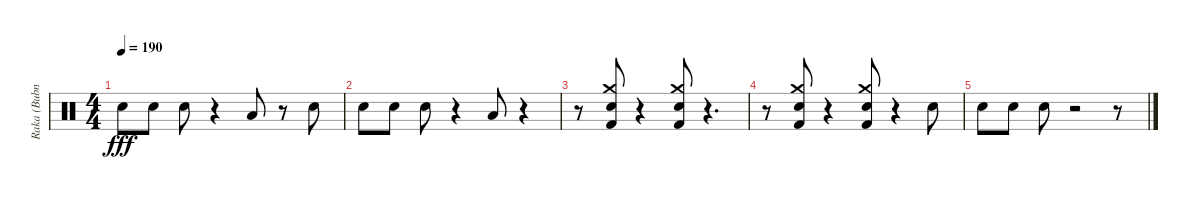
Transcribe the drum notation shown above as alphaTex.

\track ("Raka (Bubnjevi)" "Raka (Bubn") {instrument percussion}
\staff {score}
\articulation defaults
\ts (4 4)
\tempo 190
\clef neutral
\ks c "Snare (hit) 2".8{dy fff} "Snare (hit) 2".8 "Snare (hit) 2".8
r.4 "Low Floor Tom (hit)".8 r.8 "Snare (hit) 2".8 |
"Snare (hit) 2".8 "Snare (hit) 2".8 "Snare (hit) 2".8 r.4 "Low Floor Tom (hit)".8 r.4 |
r.8 ("Crash medium (hit)" "Snare (hit) 2" "Kick (hit) 2").8 r.4 ("Crash medium (hit)" "Snare (hit) 2" "Kick (hit) 2").8 r.4{d} |
r.8 ("Crash medium (hit)" "Snare (hit) 2" "Kick (hit) 2").8 r.4 ("Crash medium (hit)" "Snare (hit) 2" "Kick (hit) 2").8 r.4 "Snare (hit) 2".8 |
"Snare (hit) 2".8 "Snare (hit) 2".8 "Snare (hit) 2".8 r.2 r.8
